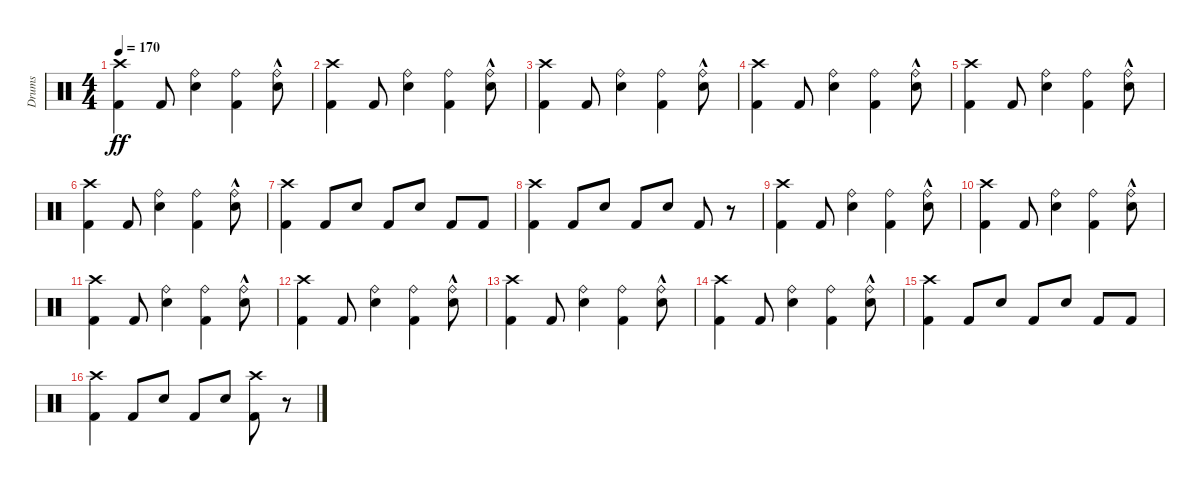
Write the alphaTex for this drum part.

\track ("Drums" "Drums") {instrument percussion}
\staff {score}
\articulation defaults
\ts (4 4)
\tempo 170
\clef neutral
\ks c
("Kick (hit) 2" "Crash high (hit)").4{dy ff} "Kick (hit) 2".8 ("Snare (hit) 2" "Ride (bell)").4 ("Kick (hit) 2" "Ride (bell)").4 ("Snare (hit) 2" "Ride (bell)"{hac}).8 |
("Kick (hit) 2" "Crash high (hit)").4 "Kick (hit) 2".8 ("Snare (hit) 2" "Ride (bell)").4 ("Kick (hit) 2" "Ride (bell)").4 ("Snare (hit) 2" "Ride (bell)"{hac}).8 |
("Kick (hit) 2" "Crash high (hit)").4 "Kick (hit) 2".8 ("Snare (hit) 2" "Ride (bell)").4 ("Kick (hit) 2" "Ride (bell)").4 ("Snare (hit) 2" "Ride (bell)"{hac}).8 |
("Kick (hit) 2" "Crash high (hit)").4 "Kick (hit) 2".8 ("Snare (hit) 2" "Ride (bell)").4 ("Kick (hit) 2" "Ride (bell)").4 ("Snare (hit) 2" "Ride (bell)"{hac}).8 |
("Kick (hit) 2" "Crash high (hit)").4 "Kick (hit) 2".8 ("Snare (hit) 2" "Ride (bell)").4 ("Kick (hit) 2" "Ride (bell)").4 ("Snare (hit) 2" "Ride (bell)"{hac}).8 |
("Kick (hit) 2" "Crash high (hit)").4 "Kick (hit) 2".8 ("Snare (hit) 2" "Ride (bell)").4 ("Kick (hit) 2" "Ride (bell)").4 ("Snare (hit) 2" "Ride (bell)"{hac}).8 |
("Kick (hit) 2" "Crash high (hit)").4 "Kick (hit) 2".8 "Snare (hit) 2".8 "Kick (hit) 2".8 "Snare (hit) 2".8 "Kick (hit) 2".8 "Kick (hit) 2".8 |
("Kick (hit) 2" "Crash high (hit)").4 "Kick (hit) 2".8 "Snare (hit) 2".8 "Kick (hit) 2".8 "Snare (hit) 2".8 "Kick (hit) 2".8 r.8 |
("Kick (hit) 2" "Crash high (hit)").4 "Kick (hit) 2".8 ("Snare (hit) 2" "Ride (bell)").4 ("Kick (hit) 2" "Ride (bell)").4 ("Snare (hit) 2" "Ride (bell)"{hac}).8 |
("Kick (hit) 2" "Crash high (hit)").4 "Kick (hit) 2".8 ("Snare (hit) 2" "Ride (bell)").4 ("Kick (hit) 2" "Ride (bell)").4 ("Snare (hit) 2" "Ride (bell)"{hac}).8 |
("Kick (hit) 2" "Crash high (hit)").4 "Kick (hit) 2".8 ("Snare (hit) 2" "Ride (bell)").4 ("Kick (hit) 2" "Ride (bell)").4 ("Snare (hit) 2" "Ride (bell)"{hac}).8 |
("Kick (hit) 2" "Crash high (hit)").4 "Kick (hit) 2".8 ("Snare (hit) 2" "Ride (bell)").4 ("Kick (hit) 2" "Ride (bell)").4 ("Snare (hit) 2" "Ride (bell)"{hac}).8 |
("Kick (hit) 2" "Crash high (hit)").4 "Kick (hit) 2".8 ("Snare (hit) 2" "Ride (bell)").4 ("Kick (hit) 2" "Ride (bell)").4 ("Snare (hit) 2" "Ride (bell)"{hac}).8 |
("Kick (hit) 2" "Crash high (hit)").4 "Kick (hit) 2".8 ("Snare (hit) 2" "Ride (bell)").4 ("Kick (hit) 2" "Ride (bell)").4 ("Snare (hit) 2" "Ride (bell)"{hac}).8 |
("Kick (hit) 2" "Crash high (hit)").4 "Kick (hit) 2".8 "Snare (hit) 2".8 "Kick (hit) 2".8 "Snare (hit) 2".8 "Kick (hit) 2".8 "Kick (hit) 2".8 |
("Kick (hit) 2" "Crash high (hit)").4 "Kick (hit) 2".8 "Snare (hit) 2".8 "Kick (hit) 2".8 "Snare (hit) 2".8 ("Kick (hit) 2" "Crash high (hit)").8 r.8
